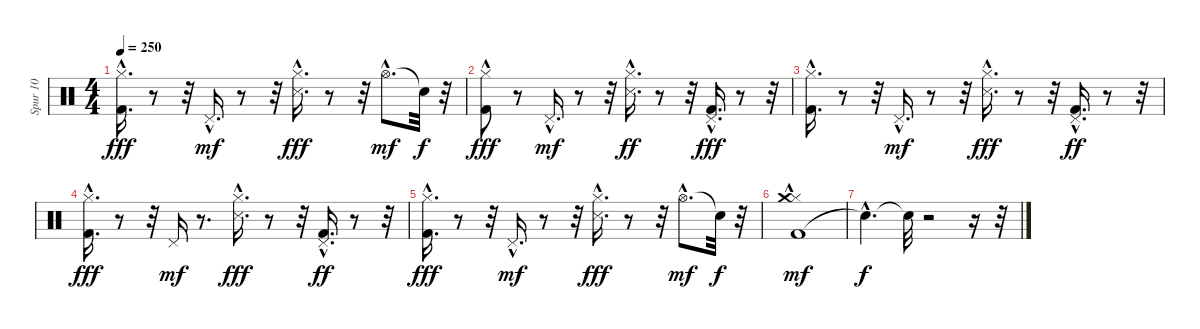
\track ("Spur 10" "Spur 10") {instrument percussion}
\staff {score}
\articulation defaults
\ts (4 4)
\tempo 250
\clef neutral
\ks c
("Hi-Hat (closed)"{hac} "Kick (hit) 2"{hac}).16{d dy fff} r.8 r.32 "Pedal Hi-Hat (hit)"{hac}.16{d dy mf} r.8 r.32 ("Hi-Hat (closed)"{hac} "Snare (side stick) 3"{hac}).16{d dy fff} r.8 r.32 "Hi-Hat (open)"{hac}.8{d dy mf} "Snare (hit)"{t}.32{dy f} r.32 |
("Hi-Hat (closed)"{hac} "Kick (hit) 2").8{dy fff} r.8 "Pedal Hi-Hat (hit)"{hac}.16{d dy mf} r.8 r.32 ("Hi-Hat (closed)"{hac} "Snare (side stick) 3"{hac}).16{d dy ff} r.8 r.32 ("Pedal Hi-Hat (hit)"{hac} "Kick (hit) 2"{hac}).16{d dy fff} r.8 r.32 |
("Hi-Hat (closed)"{hac} "Kick (hit) 2"{hac}).16{d} r.8 r.32 "Pedal Hi-Hat (hit)"{hac}.16{d dy mf} r.8 r.32 ("Hi-Hat (closed)"{hac} "Snare (side stick) 3"{hac}).16{d dy fff} r.8 r.32 ("Pedal Hi-Hat (hit)"{hac} "Kick (hit) 2"{hac}).16{d dy ff} r.8 r.32 |
("Hi-Hat (closed)"{hac} "Kick (hit) 2"{hac}).16{d dy fff} r.8 r.32 "Pedal Hi-Hat (hit)".16{dy mf} r.8{d} ("Hi-Hat (closed)"{hac} "Snare (side stick) 3"{hac}).16{d dy fff} r.8 r.32 ("Pedal Hi-Hat (hit)"{hac} "Kick (hit) 2"{hac}).16{d dy ff} r.8 r.32 |
("Hi-Hat (closed)"{hac} "Kick (hit) 2"{hac}).16{d dy fff} r.8 r.32 "Pedal Hi-Hat (hit)"{hac}.16{d dy mf} r.8 r.32 ("Hi-Hat (closed)"{hac} "Snare (side stick) 3"{hac}).16{d dy fff} r.8 r.32 "Hi-Hat (open)"{hac}.8{d dy mf} "Snare (hit)"{t}.32{dy f} r.32 |
("Kick (hit) 2"{hac} "Hi-Hat (closed)" "Crash medium (hit)").1{dy mf} |
"Snare (hit)"{hac t}.4{d dy f} "Snare (hit)"{t}.32 r.2 r.16 r.32
